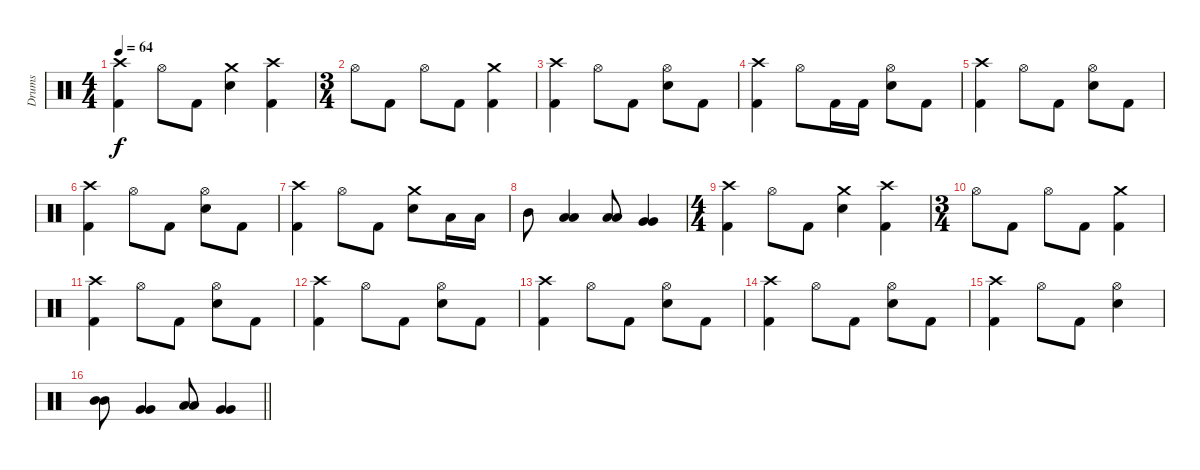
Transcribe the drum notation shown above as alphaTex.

\track ("Drums" "Drums") {instrument percussion}
\staff {score}
\articulation defaults
\ts (4 4)
\tempo 64
\clef neutral
\ks c
("Crash high (hit)" "Kick (hit) 2").4{dy f} "Hi-Hat (open)".8 "Kick (hit) 2".8 ("Crash medium (hit)" "Electric Snare (hit)").4 ("Crash high (hit)" "Kick (hit) 2").4 |
\ts (3 4)
"Hi-Hat (open)".8 "Kick (hit) 2".8 "Hi-Hat (open)".8 "Kick (hit) 2".8 ("Crash medium (hit)" "Kick (hit) 2").4 |
("Crash high (hit)" "Kick (hit) 2").4 "Hi-Hat (open)".8 "Kick (hit) 2".8 ("Hi-Hat (open)" "Electric Snare (hit)").8 "Kick (hit) 2".8 |
("Crash high (hit)" "Kick (hit) 2").4 "Hi-Hat (open)".8 "Kick (hit) 2".16 "Kick (hit) 2".16 ("Hi-Hat (open)" "Electric Snare (hit)").8 "Kick (hit) 2".8 |
("Crash high (hit)" "Kick (hit) 2").4 "Hi-Hat (open)".8 "Kick (hit) 2".8 ("Hi-Hat (open)" "Electric Snare (hit)").8 "Kick (hit) 2".8 |
("Crash high (hit)" "Kick (hit) 2").4 "Hi-Hat (open)".8 "Kick (hit) 2".8 ("Hi-Hat (open)" "Electric Snare (hit)").8 "Kick (hit) 2".8 |
("Crash high (hit)" "Kick (hit) 2").4 "Hi-Hat (open)".8 "Kick (hit) 2".8 ("Crash medium (hit)" "Electric Snare (hit)").8 "Low Tom (hit)".16 "Low Tom (hit)".16 |
"Mid Tom (hit)".8 ("Low Tom (hit)" "Low Tom (hit)").4 ("Low Tom (hit)" "Low Tom (hit)").8 ("Very Low Tom (hit)" "Very Low Tom (hit)").4 |
\ts (4 4)
("Crash high (hit)" "Kick (hit) 2").4 "Hi-Hat (open)".8 "Kick (hit) 2".8 ("Crash medium (hit)" "Electric Snare (hit)").4 ("Crash high (hit)" "Kick (hit) 2").4 |
\ts (3 4)
"Hi-Hat (open)".8 "Kick (hit) 2".8 "Hi-Hat (open)".8 "Kick (hit) 2".8 ("Crash medium (hit)" "Kick (hit) 2").4 |
("Crash high (hit)" "Kick (hit) 2").4 "Hi-Hat (open)".8 "Kick (hit) 2".8 ("Hi-Hat (open)" "Electric Snare (hit)").8 "Kick (hit) 2".8 |
("Crash high (hit)" "Kick (hit) 2").4 "Hi-Hat (open)".8 "Kick (hit) 2".8 ("Hi-Hat (open)" "Electric Snare (hit)").8 "Kick (hit) 2".8 |
("Crash high (hit)" "Kick (hit) 2").4 "Hi-Hat (open)".8 "Kick (hit) 2".8 ("Hi-Hat (open)" "Electric Snare (hit)").8 "Kick (hit) 2".8 |
("Crash high (hit)" "Kick (hit) 2").4 "Hi-Hat (open)".8 "Kick (hit) 2".8 ("Hi-Hat (open)" "Electric Snare (hit)").8 "Kick (hit) 2".8 |
("Crash high (hit)" "Kick (hit) 2").4 "Hi-Hat (open)".8 "Kick (hit) 2".8 ("Hi-Hat (open)" "Electric Snare (hit)").4 |
\barLineRight lightlight
("Mid Tom (hit)" "Mid Tom (hit)").8 ("Very Low Tom (hit)" "Very Low Tom (hit)").4 ("Low Tom (hit)" "Low Tom (hit)").8 ("Very Low Tom (hit)" "Very Low Tom (hit)").4
